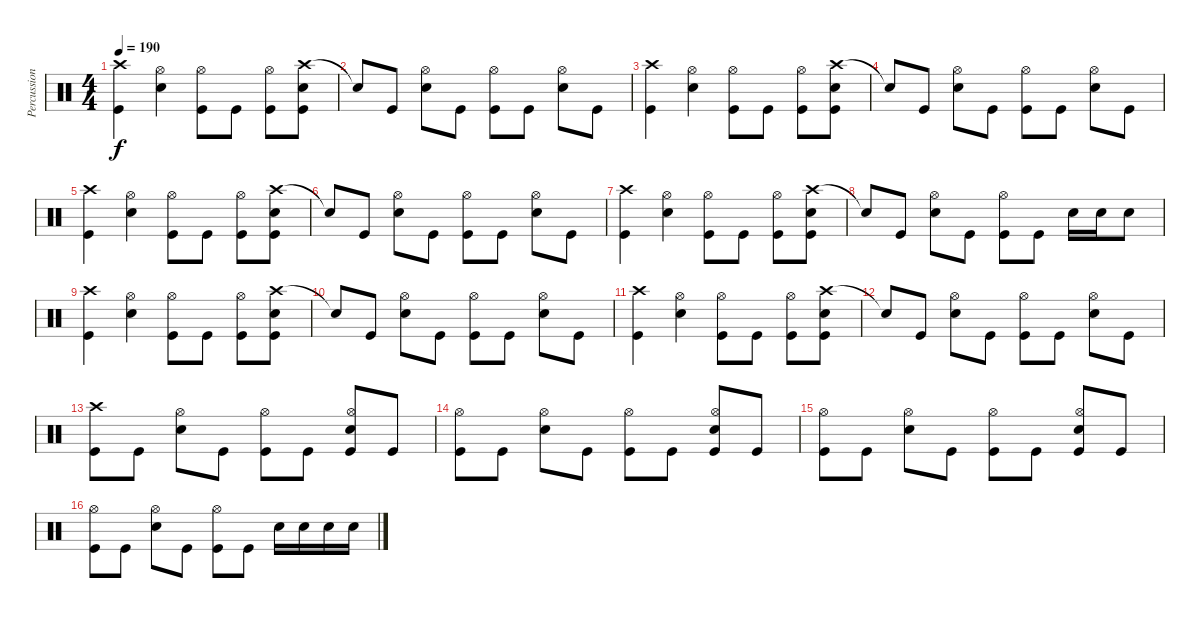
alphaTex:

\track ("Percussion" "Percussion") {instrument percussion}
\staff {score}
\articulation defaults
\ts (4 4)
\tempo 190
\clef neutral
\ks c
("Crash high (hit)" "Kick (hit)").4{dy f} ("Hi-Hat (open)" "Snare (hit) 2").4 ("Hi-Hat (open)" "Kick (hit)").8 "Kick (hit)".8 ("Hi-Hat (open)" "Kick (hit)").8 ("Crash high (hit)" "Snare (hit) 2" "Kick (hit)").8 |
"Snare (hit)"{t}.8 "Kick (hit)".8 ("Hi-Hat (open)" "Snare (hit) 2").8 "Kick (hit)".8 ("Hi-Hat (open)" "Kick (hit)").8 "Kick (hit)".8 ("Hi-Hat (open)" "Snare (hit) 2").8 "Kick (hit)".8 |
("Crash high (hit)" "Kick (hit)").4 ("Hi-Hat (open)" "Snare (hit) 2").4 ("Hi-Hat (open)" "Kick (hit)").8 "Kick (hit)".8 ("Hi-Hat (open)" "Kick (hit)").8 ("Crash high (hit)" "Snare (hit) 2" "Kick (hit)").8 |
"Snare (hit)"{t}.8 "Kick (hit)".8 ("Hi-Hat (open)" "Snare (hit) 2").8 "Kick (hit)".8 ("Hi-Hat (open)" "Kick (hit)").8 "Kick (hit)".8 ("Hi-Hat (open)" "Snare (hit) 2").8 "Kick (hit)".8 |
("Crash high (hit)" "Kick (hit)").4 ("Hi-Hat (open)" "Snare (hit) 2").4 ("Hi-Hat (open)" "Kick (hit)").8 "Kick (hit)".8 ("Hi-Hat (open)" "Kick (hit)").8 ("Crash high (hit)" "Snare (hit) 2" "Kick (hit)").8 |
"Snare (hit)"{t}.8 "Kick (hit)".8 ("Hi-Hat (open)" "Snare (hit) 2").8 "Kick (hit)".8 ("Hi-Hat (open)" "Kick (hit)").8 "Kick (hit)".8 ("Hi-Hat (open)" "Snare (hit) 2").8 "Kick (hit)".8 |
("Crash high (hit)" "Kick (hit)").4 ("Hi-Hat (open)" "Snare (hit) 2").4 ("Hi-Hat (open)" "Kick (hit)").8 "Kick (hit)".8 ("Hi-Hat (open)" "Kick (hit)").8 ("Crash high (hit)" "Snare (hit) 2" "Kick (hit)").8 |
"Snare (hit)"{t}.8 "Kick (hit)".8 ("Hi-Hat (open)" "Snare (hit) 2").8 "Kick (hit)".8 ("Hi-Hat (open)" "Kick (hit)").8 "Kick (hit)".8 "Snare (hit) 2".16 "Snare (hit) 2".16 "Snare (hit) 2".8 |
("Crash high (hit)" "Kick (hit)").4 ("Hi-Hat (open)" "Snare (hit) 2").4 ("Hi-Hat (open)" "Kick (hit)").8 "Kick (hit)".8 ("Hi-Hat (open)" "Kick (hit)").8 ("Crash high (hit)" "Snare (hit) 2" "Kick (hit)").8 |
"Snare (hit)"{t}.8 "Kick (hit)".8 ("Hi-Hat (open)" "Snare (hit) 2").8 "Kick (hit)".8 ("Hi-Hat (open)" "Kick (hit)").8 "Kick (hit)".8 ("Hi-Hat (open)" "Snare (hit) 2").8 "Kick (hit)".8 |
("Crash high (hit)" "Kick (hit)").4 ("Hi-Hat (open)" "Snare (hit) 2").4 ("Hi-Hat (open)" "Kick (hit)").8 "Kick (hit)".8 ("Hi-Hat (open)" "Kick (hit)").8 ("Crash high (hit)" "Snare (hit) 2" "Kick (hit)").8 |
"Snare (hit)"{t}.8 "Kick (hit)".8 ("Hi-Hat (open)" "Snare (hit) 2").8 "Kick (hit)".8 ("Hi-Hat (open)" "Kick (hit)").8 "Kick (hit)".8 ("Hi-Hat (open)" "Snare (hit) 2").8 "Kick (hit)".8 |
("Crash high (hit)" "Kick (hit)").8 "Kick (hit)".8 ("Hi-Hat (open)" "Snare (hit) 2").8 "Kick (hit)".8 ("Hi-Hat (open)" "Kick (hit)").8 "Kick (hit)".8 ("Hi-Hat (open)" "Snare (hit) 2" "Kick (hit)").8 "Kick (hit)".8 |
("Hi-Hat (open)" "Kick (hit)").8 "Kick (hit)".8 ("Hi-Hat (open)" "Snare (hit) 2").8 "Kick (hit)".8 ("Hi-Hat (open)" "Kick (hit)").8 "Kick (hit)".8 ("Hi-Hat (open)" "Snare (hit) 2" "Kick (hit)").8 "Kick (hit)".8 |
("Hi-Hat (open)" "Kick (hit)").8 "Kick (hit)".8 ("Hi-Hat (open)" "Snare (hit) 2").8 "Kick (hit)".8 ("Hi-Hat (open)" "Kick (hit)").8 "Kick (hit)".8 ("Hi-Hat (open)" "Snare (hit) 2" "Kick (hit)").8 "Kick (hit)".8 |
("Hi-Hat (open)" "Kick (hit)").8 "Kick (hit)".8 ("Hi-Hat (open)" "Snare (hit) 2").8 "Kick (hit)".8 ("Hi-Hat (open)" "Kick (hit)").8 "Kick (hit)".8 "Snare (hit) 2".16 "Snare (hit) 2".16 "Snare (hit) 2".16 "Snare (hit) 2".16
